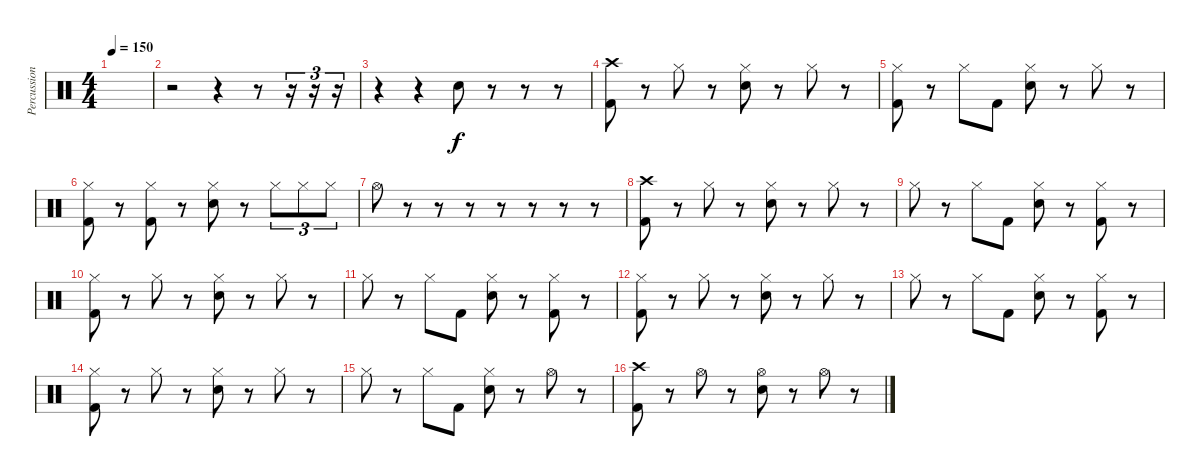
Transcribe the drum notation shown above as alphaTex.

\track ("Percussion" "Percussion") {instrument percussion}
\staff {score}
\articulation defaults
\ts (4 4)
\tempo 150
\clef neutral
\ks c
|
r.2 r.4 r.8 r.16{tu (3 2)} r.16{tu (3 2)} r.16{tu (3 2)} |
r.4 r.4 "Electric Snare (hit)".8 r.8 r.8 r.8 |
("Crash high (hit)" "Kick (hit) 2").8 r.8 "Hi-Hat (closed)".8 r.8 ("Hi-Hat (closed)" "Electric Snare (hit)").8 r.8 "Hi-Hat (closed)".8 r.8 |
("Hi-Hat (closed)" "Kick (hit) 2").8 r.8 "Hi-Hat (closed)".8 "Kick (hit) 2".8 ("Hi-Hat (closed)" "Electric Snare (hit)").8 r.8 "Hi-Hat (closed)".8 r.8 |
("Hi-Hat (closed)" "Kick (hit) 2").8 r.8 ("Hi-Hat (closed)" "Kick (hit) 2").8 r.8 ("Hi-Hat (closed)" "Electric Snare (hit)").8 r.8 "Hi-Hat (closed)".8{tu (3 2)} "Hi-Hat (closed)".8{tu (3 2)} "Hi-Hat (closed)".8{tu (3 2)} |
"Hi-Hat (open)".8 r.8 r.8 r.8 r.8 r.8 r.8 r.8 |
("Crash high (hit)" "Kick (hit) 2").8 r.8 "Hi-Hat (closed)".8 r.8 ("Hi-Hat (closed)" "Electric Snare (hit)").8 r.8 "Hi-Hat (closed)".8 r.8 |
"Hi-Hat (closed)".8 r.8 "Hi-Hat (closed)".8 "Kick (hit) 2".8 ("Hi-Hat (closed)" "Electric Snare (hit)").8 r.8 ("Hi-Hat (closed)" "Kick (hit) 2").8 r.8 |
("Hi-Hat (closed)" "Kick (hit) 2").8 r.8 "Hi-Hat (closed)".8 r.8 ("Hi-Hat (closed)" "Electric Snare (hit)").8 r.8 "Hi-Hat (closed)".8 r.8 |
"Hi-Hat (closed)".8 r.8 "Hi-Hat (closed)".8 "Kick (hit) 2".8 ("Hi-Hat (closed)" "Electric Snare (hit)").8 r.8 ("Hi-Hat (closed)" "Kick (hit) 2").8 r.8 |
("Hi-Hat (closed)" "Kick (hit) 2").8 r.8 "Hi-Hat (closed)".8 r.8 ("Hi-Hat (closed)" "Electric Snare (hit)").8 r.8 "Hi-Hat (closed)".8 r.8 |
"Hi-Hat (closed)".8 r.8 "Hi-Hat (closed)".8 "Kick (hit) 2".8 ("Hi-Hat (closed)" "Electric Snare (hit)").8 r.8 ("Hi-Hat (closed)" "Kick (hit) 2").8 r.8 |
("Hi-Hat (closed)" "Kick (hit) 2").8 r.8 "Hi-Hat (closed)".8 r.8 ("Hi-Hat (closed)" "Electric Snare (hit)").8 r.8 "Hi-Hat (closed)".8 r.8 |
"Hi-Hat (closed)".8 r.8 "Hi-Hat (closed)".8 "Kick (hit) 2".8 ("Hi-Hat (closed)" "Electric Snare (hit)").8 r.8 "Hi-Hat (open)".8 r.8 |
("Crash high (hit)" "Kick (hit) 2").8 r.8 "Hi-Hat (open)".8 r.8 ("Hi-Hat (open)" "Electric Snare (hit)").8 r.8 "Hi-Hat (open)".8 r.8
